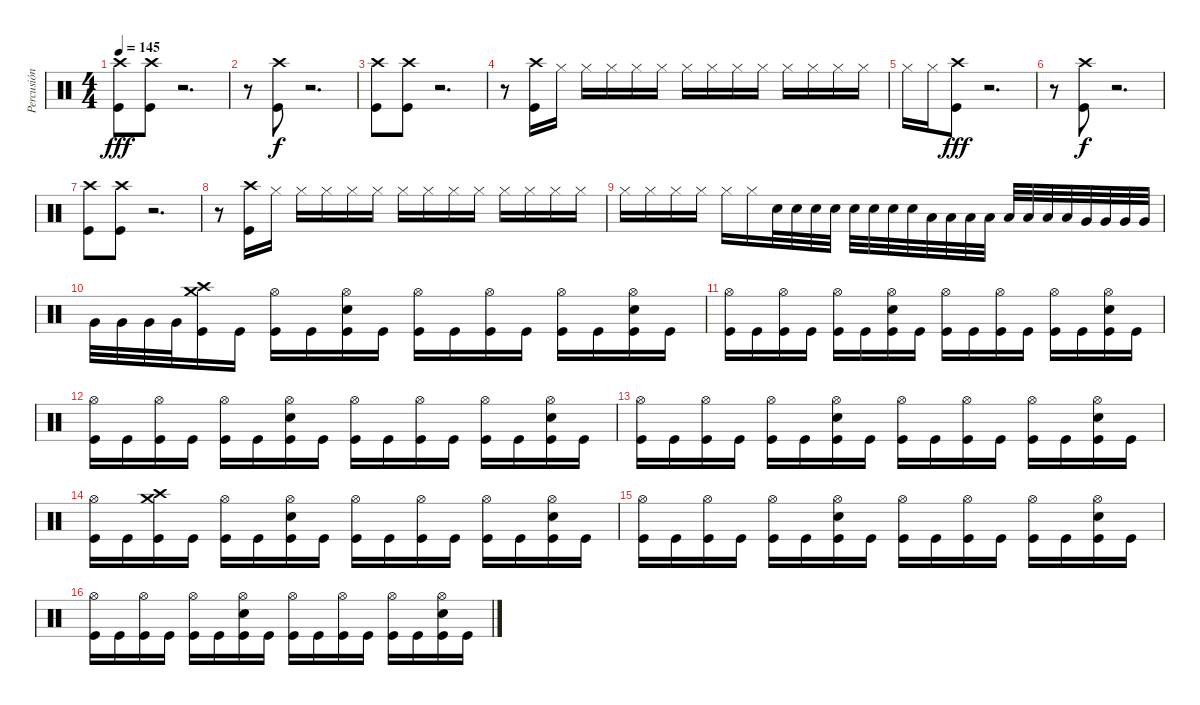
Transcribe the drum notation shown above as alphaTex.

\track ("Percusión" "Percusión") {instrument percussion}
\staff {score}
\articulation defaults
\ts (4 4)
\tempo 145
\clef neutral
\ks c
("Crash high (hit)" "Kick (hit)").8{dy fff} ("Crash high (hit)" "Kick (hit)").8 r.2{d} |
r.8 ("Crash high (hit)" "Kick (hit)").8{dy f} r.2{d} |
("Crash high (hit)" "Kick (hit)").8 ("Crash high (hit)" "Kick (hit)").8 r.2{d} |
r.8 ("Crash high (hit)" "Kick (hit)").16 "Hi-Hat (closed)".16 "Hi-Hat (closed)".16 "Hi-Hat (closed)".16 "Hi-Hat (closed)".16 "Hi-Hat (closed)".16 "Hi-Hat (closed)".16 "Hi-Hat (closed)".16 "Hi-Hat (closed)".16 "Hi-Hat (closed)".16 "Hi-Hat (closed)".16 "Hi-Hat (closed)".16 "Hi-Hat (closed)".16 "Hi-Hat (closed)".16 |
"Hi-Hat (closed)".16 "Hi-Hat (closed)".16 ("Crash high (hit)" "Kick (hit)").8{dy fff} r.2{d} |
r.8 ("Crash high (hit)" "Kick (hit)").8{dy f} r.2{d} |
("Crash high (hit)" "Kick (hit)").8 ("Crash high (hit)" "Kick (hit)").8 r.2{d} |
r.8 ("Crash high (hit)" "Kick (hit)").16 "Hi-Hat (closed)".16 "Hi-Hat (closed)".16 "Hi-Hat (closed)".16 "Hi-Hat (closed)".16 "Hi-Hat (closed)".16 "Hi-Hat (closed)".16 "Hi-Hat (closed)".16 "Hi-Hat (closed)".16 "Hi-Hat (closed)".16 "Hi-Hat (closed)".16 "Hi-Hat (closed)".16 "Hi-Hat (closed)".16 "Hi-Hat (closed)".16 |
"Hi-Hat (closed)".16 "Hi-Hat (closed)".16 "Hi-Hat (closed)".16 "Hi-Hat (closed)".16 "Hi-Hat (closed)".16 "Hi-Hat (closed)".16 "Snare (hit) 2".32 "Snare (hit) 2".32 "Snare (hit) 2".32 "Snare (hit) 2".32 "Snare (hit) 2".32 "Snare (hit) 2".32 "Snare (hit) 2".32 "Snare (hit) 2".32 "Low Tom (hit)".32 "Low Tom (hit)".32 "Low Tom (hit)".32 "Low Tom (hit)".32 "Low Tom (hit)".32 "Low Tom (hit)".32 "Low Tom (hit)".32 "Low Tom (hit)".32 "Very Low Tom (hit)".32 "Very Low Tom (hit)".32 "Very Low Tom (hit)".32 "Very Low Tom (hit)".32 |
"Very Low Tom (hit)".32 "Very Low Tom (hit)".32 "Very Low Tom (hit)".32 "Very Low Tom (hit)".32 ("Crash medium (hit)" "Crash high (hit)" "Kick (hit)").16 "Kick (hit)".16 ("Hi-Hat (open)" "Kick (hit)").16 "Kick (hit)".16 ("Hi-Hat (open)" "Snare (hit) 2" "Kick (hit)").16 "Kick (hit)".16 ("Hi-Hat (open)" "Kick (hit)").16 "Kick (hit)".16 ("Hi-Hat (open)" "Kick (hit)").16 "Kick (hit)".16 ("Hi-Hat (open)" "Kick (hit)").16 "Kick (hit)".16 ("Hi-Hat (open)" "Snare (hit) 2" "Kick (hit)").16 "Kick (hit)".16 |
("Hi-Hat (open)" "Kick (hit)").16 "Kick (hit)".16 ("Hi-Hat (open)" "Kick (hit)").16 "Kick (hit)".16 ("Hi-Hat (open)" "Kick (hit)").16 "Kick (hit)".16 ("Hi-Hat (open)" "Snare (hit) 2" "Kick (hit)").16 "Kick (hit)".16 ("Hi-Hat (open)" "Kick (hit)").16 "Kick (hit)".16 ("Hi-Hat (open)" "Kick (hit)").16 "Kick (hit)".16 ("Hi-Hat (open)" "Kick (hit)").16 "Kick (hit)".16 ("Hi-Hat (open)" "Snare (hit) 2" "Kick (hit)").16 "Kick (hit)".16 |
("Hi-Hat (open)" "Kick (hit)").16 "Kick (hit)".16 ("Hi-Hat (open)" "Kick (hit)").16 "Kick (hit)".16 ("Hi-Hat (open)" "Kick (hit)").16 "Kick (hit)".16 ("Hi-Hat (open)" "Snare (hit) 2" "Kick (hit)").16 "Kick (hit)".16 ("Hi-Hat (open)" "Kick (hit)").16 "Kick (hit)".16 ("Hi-Hat (open)" "Kick (hit)").16 "Kick (hit)".16 ("Hi-Hat (open)" "Kick (hit)").16 "Kick (hit)".16 ("Hi-Hat (open)" "Snare (hit) 2" "Kick (hit)").16 "Kick (hit)".16 |
("Hi-Hat (open)" "Kick (hit)").16 "Kick (hit)".16 ("Hi-Hat (open)" "Kick (hit)").16 "Kick (hit)".16 ("Hi-Hat (open)" "Kick (hit)").16 "Kick (hit)".16 ("Hi-Hat (open)" "Snare (hit) 2" "Kick (hit)").16 "Kick (hit)".16 ("Hi-Hat (open)" "Kick (hit)").16 "Kick (hit)".16 ("Hi-Hat (open)" "Kick (hit)").16 "Kick (hit)".16 ("Hi-Hat (open)" "Kick (hit)").16 "Kick (hit)".16 ("Hi-Hat (open)" "Snare (hit) 2" "Kick (hit)").16 "Kick (hit)".16 |
("Hi-Hat (open)" "Kick (hit)").16 "Kick (hit)".16 ("Crash medium (hit)" "Crash high (hit)" "Kick (hit)").16 "Kick (hit)".16 ("Hi-Hat (open)" "Kick (hit)").16 "Kick (hit)".16 ("Hi-Hat (open)" "Snare (hit) 2" "Kick (hit)").16 "Kick (hit)".16 ("Hi-Hat (open)" "Kick (hit)").16 "Kick (hit)".16 ("Hi-Hat (open)" "Kick (hit)").16 "Kick (hit)".16 ("Hi-Hat (open)" "Kick (hit)").16 "Kick (hit)".16 ("Hi-Hat (open)" "Snare (hit) 2" "Kick (hit)").16 "Kick (hit)".16 |
("Hi-Hat (open)" "Kick (hit)").16 "Kick (hit)".16 ("Hi-Hat (open)" "Kick (hit)").16 "Kick (hit)".16 ("Hi-Hat (open)" "Kick (hit)").16 "Kick (hit)".16 ("Hi-Hat (open)" "Snare (hit) 2" "Kick (hit)").16 "Kick (hit)".16 ("Hi-Hat (open)" "Kick (hit)").16 "Kick (hit)".16 ("Hi-Hat (open)" "Kick (hit)").16 "Kick (hit)".16 ("Hi-Hat (open)" "Kick (hit)").16 "Kick (hit)".16 ("Hi-Hat (open)" "Snare (hit) 2" "Kick (hit)").16 "Kick (hit)".16 |
("Hi-Hat (open)" "Kick (hit)").16 "Kick (hit)".16 ("Hi-Hat (open)" "Kick (hit)").16 "Kick (hit)".16 ("Hi-Hat (open)" "Kick (hit)").16 "Kick (hit)".16 ("Hi-Hat (open)" "Snare (hit) 2" "Kick (hit)").16 "Kick (hit)".16 ("Hi-Hat (open)" "Kick (hit)").16 "Kick (hit)".16 ("Hi-Hat (open)" "Kick (hit)").16 "Kick (hit)".16 ("Hi-Hat (open)" "Kick (hit)").16 "Kick (hit)".16 ("Hi-Hat (open)" "Snare (hit) 2" "Kick (hit)").16 "Kick (hit)".16
